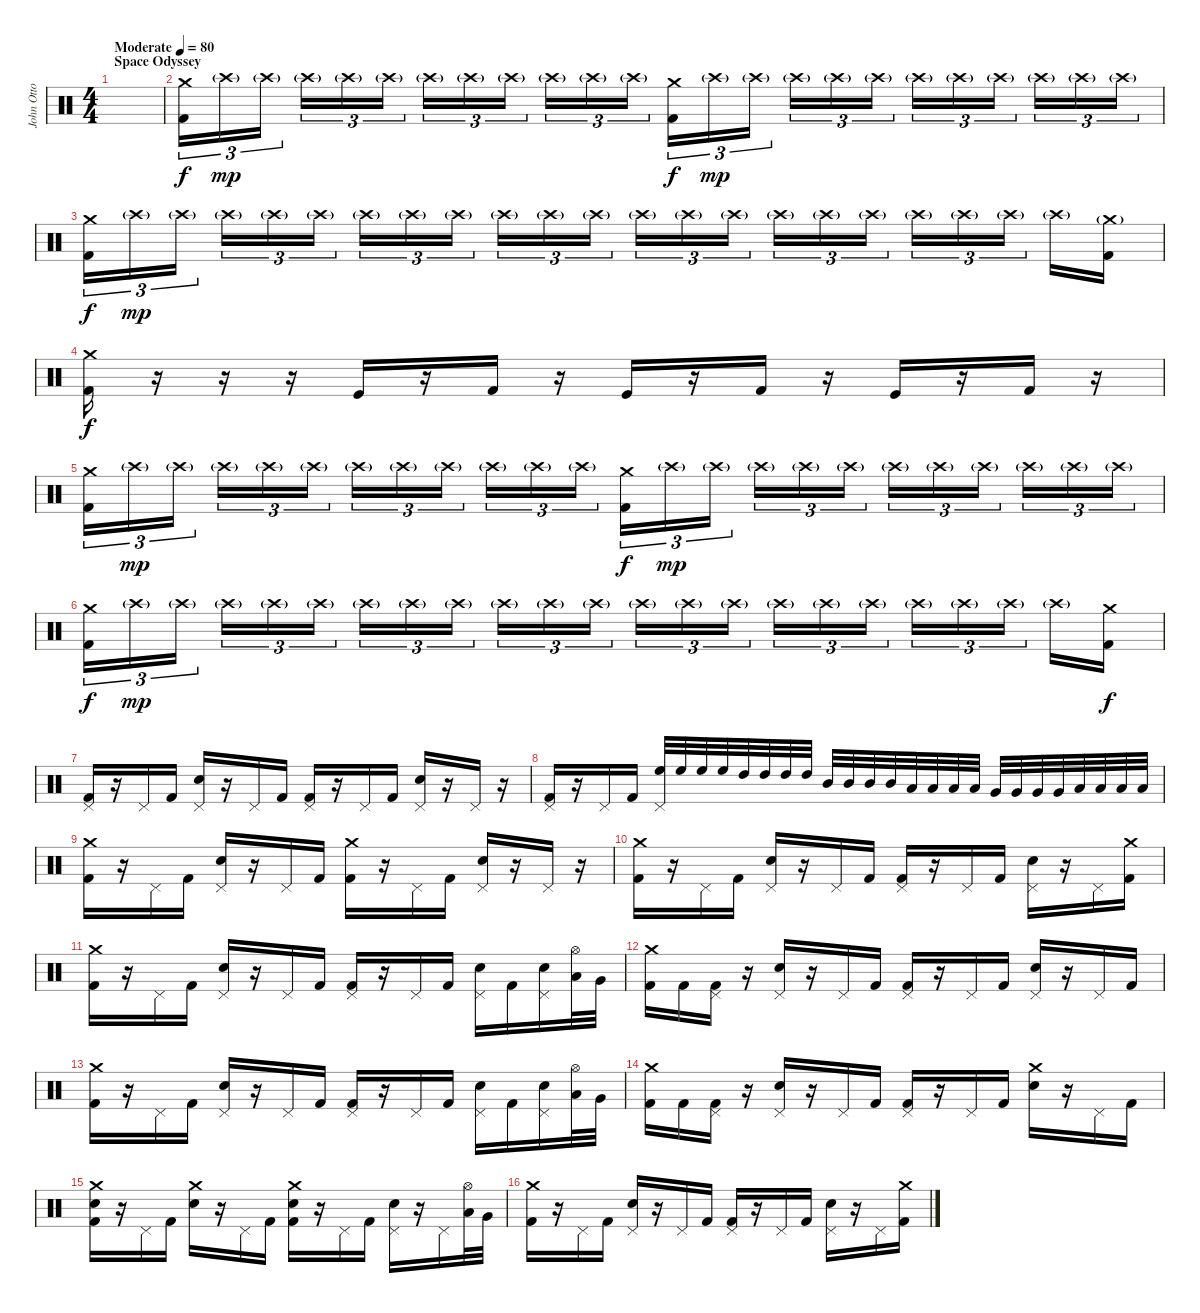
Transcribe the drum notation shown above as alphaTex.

\track ("John Otto" "John Otto") {instrument percussion}
\staff {score}
\articulation defaults
\ts (4 4)
\section ("" "Space Odyssey")
\tempo (80 "Moderate")
\clef neutral
\ks c
|
("Crash medium (hit)" "Kick (hit) 2").16{tu (3 2)} "Crash high (hit)"{g}.16{tu (3 2) dy mp} "Crash high (hit)"{g}.16{tu (3 2) beam splitsecondary} "Crash high (hit)"{g}.16{tu (3 2)} "Crash high (hit)"{g}.16{tu (3 2)} "Crash high (hit)"{g}.16{tu (3 2)} "Crash high (hit)"{g}.16{tu (3 2)} "Crash high (hit)"{g}.16{tu (3 2)} "Crash high (hit)"{g}.16{tu (3 2) beam splitsecondary} "Crash high (hit)"{g}.16{tu (3 2)} "Crash high (hit)"{g}.16{tu (3 2)} "Crash high (hit)"{g}.16{tu (3 2)} ("Crash medium (hit)" "Kick (hit) 2").16{tu (3 2) dy f} "Crash high (hit)"{g}.16{tu (3 2) dy mp} "Crash high (hit)"{g}.16{tu (3 2) beam splitsecondary} "Crash high (hit)"{g}.16{tu (3 2)} "Crash high (hit)"{g}.16{tu (3 2)} "Crash high (hit)"{g}.16{tu (3 2)} "Crash high (hit)"{g}.16{tu (3 2)} "Crash high (hit)"{g}.16{tu (3 2)} "Crash high (hit)"{g}.16{tu (3 2) beam splitsecondary} "Crash high (hit)"{g}.16{tu (3 2)} "Crash high (hit)"{g}.16{tu (3 2)} "Crash high (hit)"{g}.16{tu (3 2)} |
("Crash medium (hit)" "Kick (hit) 2").16{tu (3 2) dy f} "Crash high (hit)"{g}.16{tu (3 2) dy mp} "Crash high (hit)"{g}.16{tu (3 2) beam splitsecondary} "Crash high (hit)"{g}.16{tu (3 2)} "Crash high (hit)"{g}.16{tu (3 2)} "Crash high (hit)"{g}.16{tu (3 2)} "Crash high (hit)"{g}.16{tu (3 2)} "Crash high (hit)"{g}.16{tu (3 2)} "Crash high (hit)"{g}.16{tu (3 2) beam splitsecondary} "Crash high (hit)"{g}.16{tu (3 2)} "Crash high (hit)"{g}.16{tu (3 2)} "Crash high (hit)"{g}.16{tu (3 2)} "Crash high (hit)"{g}.16{tu (3 2)} "Crash high (hit)"{g}.16{tu (3 2)} "Crash high (hit)"{g}.16{tu (3 2) beam splitsecondary} "Crash high (hit)"{g}.16{tu (3 2)} "Crash high (hit)"{g}.16{tu (3 2)} "Crash high (hit)"{g}.16{tu (3 2)} "Crash high (hit)"{g}.16{tu (3 2)} "Crash high (hit)"{g}.16{tu (3 2)} "Crash high (hit)"{g}.16{tu (3 2) beam splitsecondary} "Crash high (hit)"{g}.16 ("Crash medium (hit)"{g} "Kick (hit) 2").16 |
("Crash medium (hit)" "Kick (hit) 2").16{dy f} r.16 r.16 r.16 "Kick (hit)".16 r.16 "Kick (hit) 2".16 r.16 "Kick (hit)".16 r.16 "Kick (hit) 2".16 r.16 "Kick (hit)".16 r.16 "Kick (hit) 2".16 r.16 |
("Crash medium (hit)" "Kick (hit) 2").16{tu (3 2)} "Crash high (hit)"{g}.16{tu (3 2) dy mp} "Crash high (hit)"{g}.16{tu (3 2) beam splitsecondary} "Crash high (hit)"{g}.16{tu (3 2)} "Crash high (hit)"{g}.16{tu (3 2)} "Crash high (hit)"{g}.16{tu (3 2)} "Crash high (hit)"{g}.16{tu (3 2)} "Crash high (hit)"{g}.16{tu (3 2)} "Crash high (hit)"{g}.16{tu (3 2) beam splitsecondary} "Crash high (hit)"{g}.16{tu (3 2)} "Crash high (hit)"{g}.16{tu (3 2)} "Crash high (hit)"{g}.16{tu (3 2)} ("Crash medium (hit)" "Kick (hit) 2").16{tu (3 2) dy f} "Crash high (hit)"{g}.16{tu (3 2) dy mp} "Crash high (hit)"{g}.16{tu (3 2) beam splitsecondary} "Crash high (hit)"{g}.16{tu (3 2)} "Crash high (hit)"{g}.16{tu (3 2)} "Crash high (hit)"{g}.16{tu (3 2)} "Crash high (hit)"{g}.16{tu (3 2)} "Crash high (hit)"{g}.16{tu (3 2)} "Crash high (hit)"{g}.16{tu (3 2) beam splitsecondary} "Crash high (hit)"{g}.16{tu (3 2)} "Crash high (hit)"{g}.16{tu (3 2)} "Crash high (hit)"{g}.16{tu (3 2)} |
("Crash medium (hit)" "Kick (hit) 2").16{tu (3 2) dy f} "Crash high (hit)"{g}.16{tu (3 2) dy mp} "Crash high (hit)"{g}.16{tu (3 2) beam splitsecondary} "Crash high (hit)"{g}.16{tu (3 2)} "Crash high (hit)"{g}.16{tu (3 2)} "Crash high (hit)"{g}.16{tu (3 2)} "Crash high (hit)"{g}.16{tu (3 2)} "Crash high (hit)"{g}.16{tu (3 2)} "Crash high (hit)"{g}.16{tu (3 2) beam splitsecondary} "Crash high (hit)"{g}.16{tu (3 2)} "Crash high (hit)"{g}.16{tu (3 2)} "Crash high (hit)"{g}.16{tu (3 2)} "Crash high (hit)"{g}.16{tu (3 2)} "Crash high (hit)"{g}.16{tu (3 2)} "Crash high (hit)"{g}.16{tu (3 2) beam splitsecondary} "Crash high (hit)"{g}.16{tu (3 2)} "Crash high (hit)"{g}.16{tu (3 2)} "Crash high (hit)"{g}.16{tu (3 2)} "Crash high (hit)"{g}.16{tu (3 2)} "Crash high (hit)"{g}.16{tu (3 2)} "Crash high (hit)"{g}.16{tu (3 2) beam splitsecondary} "Crash high (hit)"{g}.16 ("Crash medium (hit)" "Kick (hit) 2").16{dy f} |
("Pedal Hi-Hat (hit)" "Kick (hit) 2").16 r.16 "Pedal Hi-Hat (hit)".16 "Kick (hit) 2".16 ("Pedal Hi-Hat (hit)" "Snare (hit) 2").16 r.16 "Pedal Hi-Hat (hit)".16 "Kick (hit) 2".16 ("Pedal Hi-Hat (hit)" "Kick (hit) 2").16 r.16 "Pedal Hi-Hat (hit)".16 "Kick (hit) 2".16 ("Pedal Hi-Hat (hit)" "Snare (hit) 2").16 r.16 "Pedal Hi-Hat (hit)".16 r.16 |
("Pedal Hi-Hat (hit)" "Kick (hit) 2").16 r.16 "Pedal Hi-Hat (hit)".16 "Kick (hit) 2".16 ("Pedal Hi-Hat (hit)" "High Floor Tom (hit)").32 "High Floor Tom (hit)".32 "High Floor Tom (hit)".32 "High Floor Tom (hit)".32 "High Tom (hit)".32 "High Tom (hit)".32 "High Tom (hit)".32 "High Tom (hit)".32 "Mid Tom (hit)".32 "Mid Tom (hit)".32 "Mid Tom (hit)".32 "Mid Tom (hit)".32 "Low Tom (hit)".32 "Low Tom (hit)".32 "Low Tom (hit)".32 "Low Tom (hit)".32 "Very Low Tom (hit)".32 "Very Low Tom (hit)".32 "Very Low Tom (hit)".32 "Very Low Tom (hit)".32 "Low Tom (hit)".32 "Low Tom (hit)".32 "Low Tom (hit)".32 "Low Tom (hit)".32 |
("Crash medium (hit)" "Kick (hit) 2").16 r.16 "Pedal Hi-Hat (hit)".16 "Kick (hit) 2".16 ("Pedal Hi-Hat (hit)" "Snare (hit) 2").16 r.16 "Pedal Hi-Hat (hit)".16 "Kick (hit) 2".16 ("Crash medium (hit)" "Kick (hit) 2").16 r.16 "Pedal Hi-Hat (hit)".16 "Kick (hit) 2".16 ("Pedal Hi-Hat (hit)" "Snare (hit) 2").16 r.16 "Pedal Hi-Hat (hit)".16 r.16 |
("Crash medium (hit)" "Kick (hit) 2").16 r.16 "Pedal Hi-Hat (hit)".16 "Kick (hit) 2".16 ("Pedal Hi-Hat (hit)" "Snare (hit) 2").16 r.16 "Pedal Hi-Hat (hit)".16 "Kick (hit) 2".16 ("Pedal Hi-Hat (hit)" "Kick (hit) 2").16 r.16 "Pedal Hi-Hat (hit)".16 "Kick (hit) 2".16 ("Pedal Hi-Hat (hit)" "Snare (hit) 2").16 r.16 "Pedal Hi-Hat (hit)".16 ("Crash medium (hit)" "Kick (hit) 2").16 |
("Crash medium (hit)" "Kick (hit) 2").16 r.16 "Pedal Hi-Hat (hit)".16 "Kick (hit) 2".16 ("Pedal Hi-Hat (hit)" "Snare (hit) 2").16 r.16 "Pedal Hi-Hat (hit)".16 "Kick (hit) 2".16 ("Pedal Hi-Hat (hit)" "Kick (hit) 2").16 r.16 "Pedal Hi-Hat (hit)".16 "Kick (hit) 2".16 ("Pedal Hi-Hat (hit)" "Snare (hit) 2").16 "Kick (hit) 2".16 ("Pedal Hi-Hat (hit)" "Snare (hit) 2").16 ("Hi-Hat (open)" "Low Tom (hit)").32 "Very Low Tom (hit)".32 |
("Crash medium (hit)" "Kick (hit) 2").16 "Kick (hit) 2".16 ("Pedal Hi-Hat (hit)" "Kick (hit) 2").16 r.16 ("Pedal Hi-Hat (hit)" "Snare (hit) 2").16 r.16 "Pedal Hi-Hat (hit)".16 "Kick (hit) 2".16 ("Pedal Hi-Hat (hit)" "Kick (hit) 2").16 r.16 "Pedal Hi-Hat (hit)".16 "Kick (hit) 2".16 ("Pedal Hi-Hat (hit)" "Snare (hit) 2").16 r.16 "Pedal Hi-Hat (hit)".16 "Kick (hit) 2".16 |
("Crash medium (hit)" "Kick (hit) 2").16 r.16 "Pedal Hi-Hat (hit)".16 "Kick (hit) 2".16 ("Pedal Hi-Hat (hit)" "Snare (hit) 2").16 r.16 "Pedal Hi-Hat (hit)".16 "Kick (hit) 2".16 ("Pedal Hi-Hat (hit)" "Kick (hit) 2").16 r.16 "Pedal Hi-Hat (hit)".16 "Kick (hit) 2".16 ("Pedal Hi-Hat (hit)" "Snare (hit) 2").16 "Kick (hit) 2".16 ("Pedal Hi-Hat (hit)" "Snare (hit) 2").16 ("Hi-Hat (open)" "Low Tom (hit)").32 "Very Low Tom (hit)".32 |
("Crash medium (hit)" "Kick (hit) 2").16 "Kick (hit) 2".16 ("Pedal Hi-Hat (hit)" "Kick (hit) 2").16 r.16 ("Pedal Hi-Hat (hit)" "Snare (hit) 2").16 r.16 "Pedal Hi-Hat (hit)".16 "Kick (hit) 2".16 ("Pedal Hi-Hat (hit)" "Kick (hit) 2").16 r.16 "Pedal Hi-Hat (hit)".16 "Kick (hit) 2".16 ("Crash medium (hit)" "Snare (hit) 2").16 r.16 "Pedal Hi-Hat (hit)".16 "Kick (hit) 2".16 |
("Crash medium (hit)" "Snare (hit) 2" "Kick (hit) 2").16 r.16 "Pedal Hi-Hat (hit)".16 "Kick (hit) 2".16 ("Crash medium (hit)" "Snare (hit) 2").16 r.16 "Pedal Hi-Hat (hit)".16 "Kick (hit) 2".16 ("Crash medium (hit)" "Snare (hit) 2" "Kick (hit) 2").16 r.16 "Pedal Hi-Hat (hit)".16 "Kick (hit) 2".16 ("Pedal Hi-Hat (hit)" "Snare (hit) 2").16 r.16 "Pedal Hi-Hat (hit)".16 ("Hi-Hat (open)" "Low Tom (hit)").32 "Very Low Tom (hit)".32 |
("Crash medium (hit)" "Kick (hit) 2").16 r.16 "Pedal Hi-Hat (hit)".16 "Kick (hit) 2".16 ("Pedal Hi-Hat (hit)" "Snare (hit) 2").16 r.16 "Pedal Hi-Hat (hit)".16 "Kick (hit) 2".16 ("Pedal Hi-Hat (hit)" "Kick (hit) 2").16 r.16 "Pedal Hi-Hat (hit)".16 "Kick (hit) 2".16 ("Pedal Hi-Hat (hit)" "Snare (hit) 2").16 r.16 "Pedal Hi-Hat (hit)".16 ("Crash medium (hit)" "Kick (hit) 2").16
